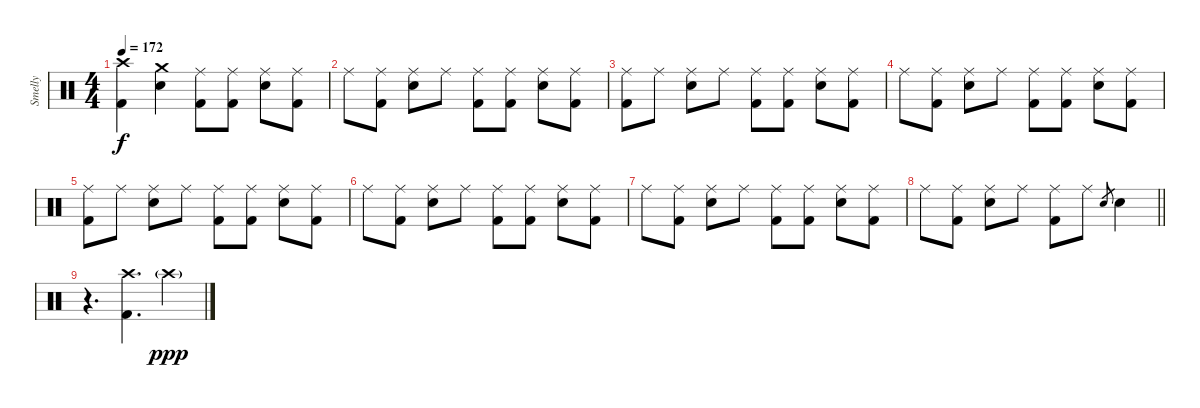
\track ("Smelly" "Smelly") {instrument percussion}
\staff {score}
\articulation defaults
\ts (4 4)
\tempo 172
\clef neutral
\ks c
("Crash high (hit)" "Kick (hit) 2").4{dy f} ("Crash medium (hit)" "Electric Snare (hit)").4 ("Ride (middle)" "Kick (hit) 2").8 ("Ride (middle)" "Kick (hit) 2").8 ("Ride (middle)" "Electric Snare (hit)").8 ("Ride (middle)" "Kick (hit) 2").8 |
"Ride (middle)".8 ("Ride (middle)" "Kick (hit) 2").8 ("Ride (middle)" "Electric Snare (hit)").8 "Ride (middle)".8 ("Ride (middle)" "Kick (hit) 2").8 ("Ride (middle)" "Kick (hit) 2").8 ("Ride (middle)" "Electric Snare (hit)").8 ("Ride (middle)" "Kick (hit) 2").8 |
("Ride (middle)" "Kick (hit) 2").8 "Ride (middle)".8 ("Ride (middle)" "Electric Snare (hit)").8 "Ride (middle)".8 ("Ride (middle)" "Kick (hit) 2").8 ("Ride (middle)" "Kick (hit) 2").8 ("Ride (middle)" "Electric Snare (hit)").8 ("Ride (middle)" "Kick (hit) 2").8 |
"Ride (middle)".8 ("Ride (middle)" "Kick (hit) 2").8 ("Ride (middle)" "Electric Snare (hit)").8 "Ride (middle)".8 ("Ride (middle)" "Kick (hit) 2").8 ("Ride (middle)" "Kick (hit) 2").8 ("Ride (middle)" "Electric Snare (hit)").8 ("Ride (middle)" "Kick (hit) 2").8 |
("Ride (middle)" "Kick (hit) 2").8 "Ride (middle)".8 ("Ride (middle)" "Electric Snare (hit)").8 "Ride (middle)".8 ("Ride (middle)" "Kick (hit) 2").8 ("Ride (middle)" "Kick (hit) 2").8 ("Ride (middle)" "Electric Snare (hit)").8 ("Ride (middle)" "Kick (hit) 2").8 |
"Ride (middle)".8 ("Ride (middle)" "Kick (hit) 2").8 ("Ride (middle)" "Electric Snare (hit)").8 "Ride (middle)".8 ("Ride (middle)" "Kick (hit) 2").8 ("Ride (middle)" "Kick (hit) 2").8 ("Ride (middle)" "Electric Snare (hit)").8 ("Ride (middle)" "Kick (hit) 2").8 |
"Ride (middle)".8 ("Ride (middle)" "Kick (hit) 2").8 ("Ride (middle)" "Electric Snare (hit)").8 "Ride (middle)".8 ("Ride (middle)" "Kick (hit) 2").8 ("Ride (middle)" "Kick (hit) 2").8 ("Ride (middle)" "Electric Snare (hit)").8 ("Ride (middle)" "Kick (hit) 2").8 |
\barLineRight lightlight "Ride (middle)".8
("Ride (middle)" "Kick (hit) 2").8 ("Ride (middle)" "Electric Snare (hit)").8 "Ride (middle)".8 ("Ride (middle)" "Kick (hit) 2").8 "Ride (middle)".8 "Electric Snare (hit)".8{gr} "Electric Snare (hit)".4 |
r.4{d} ("Crash high (hit)" "Kick (hit) 2").4{d} "Crash high (hit)"{g}.4{dy ppp}
